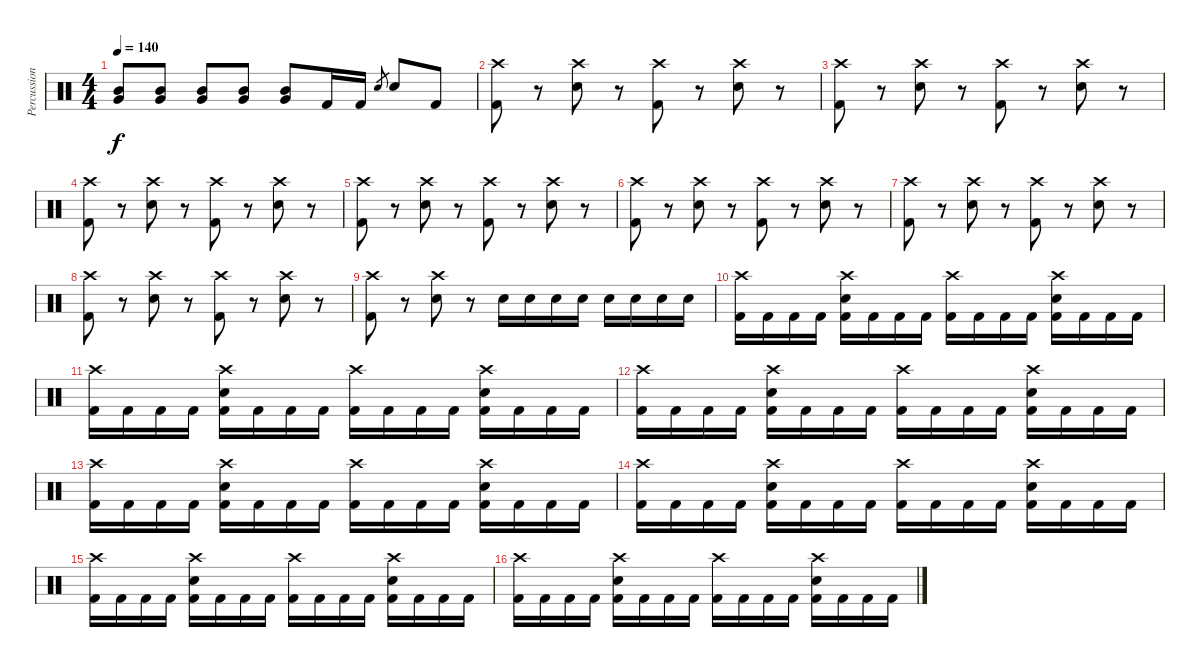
\track ("Percussion" "Percussion") {instrument percussion}
\staff {score}
\articulation defaults
\ts (4 4)
\tempo 140
\clef neutral
\ks c
("Very Low Tom (hit)" "Mid Tom (hit)").8{dy f} ("Very Low Tom (hit)" "Mid Tom (hit)").8 ("Very Low Tom (hit)" "Mid Tom (hit)").8 ("Very Low Tom (hit)" "Mid Tom (hit)").8 ("Very Low Tom (hit)" "Mid Tom (hit)").8 "Kick (hit) 2".16 "Kick (hit) 2".16 "Electric Snare (hit)".8{gr} "Electric Snare (hit)".8 "Kick (hit) 2".8 |
("Crash high (hit)" "Kick (hit) 2").8 r.8 ("Crash high (hit)" "Electric Snare (hit)").8 r.8 ("Crash high (hit)" "Kick (hit) 2").8 r.8 ("Crash high (hit)" "Electric Snare (hit)").8 r.8 |
("Crash high (hit)" "Kick (hit) 2").8 r.8 ("Crash high (hit)" "Electric Snare (hit)").8 r.8 ("Crash high (hit)" "Kick (hit) 2").8 r.8 ("Crash high (hit)" "Electric Snare (hit)").8 r.8 |
("Crash high (hit)" "Kick (hit) 2").8 r.8 ("Crash high (hit)" "Electric Snare (hit)").8 r.8 ("Crash high (hit)" "Kick (hit) 2").8 r.8 ("Crash high (hit)" "Electric Snare (hit)").8 r.8 |
("Crash high (hit)" "Kick (hit) 2").8 r.8 ("Crash high (hit)" "Electric Snare (hit)").8 r.8 ("Crash high (hit)" "Kick (hit) 2").8 r.8 ("Crash high (hit)" "Electric Snare (hit)").8 r.8 |
("Crash high (hit)" "Kick (hit) 2").8 r.8 ("Crash high (hit)" "Electric Snare (hit)").8 r.8 ("Crash high (hit)" "Kick (hit) 2").8 r.8 ("Crash high (hit)" "Electric Snare (hit)").8 r.8 |
("Crash high (hit)" "Kick (hit) 2").8 r.8 ("Crash high (hit)" "Electric Snare (hit)").8 r.8 ("Crash high (hit)" "Kick (hit) 2").8 r.8 ("Crash high (hit)" "Electric Snare (hit)").8 r.8 |
("Crash high (hit)" "Kick (hit) 2").8 r.8 ("Crash high (hit)" "Electric Snare (hit)").8 r.8 ("Crash high (hit)" "Kick (hit) 2").8 r.8 ("Crash high (hit)" "Electric Snare (hit)").8 r.8 |
("Crash high (hit)" "Kick (hit) 2").8 r.8 ("Crash high (hit)" "Electric Snare (hit)").8 r.8 "Electric Snare (hit)".16 "Electric Snare (hit)".16 "Electric Snare (hit)".16 "Electric Snare (hit)".16 "Electric Snare (hit)".16 "Electric Snare (hit)".16 "Electric Snare (hit)".16 "Electric Snare (hit)".16 |
("Crash high (hit)" "Kick (hit) 2").16 "Kick (hit) 2".16 "Kick (hit) 2".16 "Kick (hit) 2".16 ("Crash high (hit)" "Electric Snare (hit)" "Kick (hit) 2").16 "Kick (hit) 2".16 "Kick (hit) 2".16 "Kick (hit) 2".16 ("Crash high (hit)" "Kick (hit) 2").16 "Kick (hit) 2".16 "Kick (hit) 2".16 "Kick (hit) 2".16 ("Crash high (hit)" "Electric Snare (hit)" "Kick (hit) 2").16 "Kick (hit) 2".16 "Kick (hit) 2".16 "Kick (hit) 2".16 |
("Crash high (hit)" "Kick (hit) 2").16 "Kick (hit) 2".16 "Kick (hit) 2".16 "Kick (hit) 2".16 ("Crash high (hit)" "Electric Snare (hit)" "Kick (hit) 2").16 "Kick (hit) 2".16 "Kick (hit) 2".16 "Kick (hit) 2".16 ("Crash high (hit)" "Kick (hit) 2").16 "Kick (hit) 2".16 "Kick (hit) 2".16 "Kick (hit) 2".16 ("Crash high (hit)" "Electric Snare (hit)" "Kick (hit) 2").16 "Kick (hit) 2".16 "Kick (hit) 2".16 "Kick (hit) 2".16 |
("Crash high (hit)" "Kick (hit) 2").16 "Kick (hit) 2".16 "Kick (hit) 2".16 "Kick (hit) 2".16 ("Crash high (hit)" "Electric Snare (hit)" "Kick (hit) 2").16 "Kick (hit) 2".16 "Kick (hit) 2".16 "Kick (hit) 2".16 ("Crash high (hit)" "Kick (hit) 2").16 "Kick (hit) 2".16 "Kick (hit) 2".16 "Kick (hit) 2".16 ("Crash high (hit)" "Electric Snare (hit)" "Kick (hit) 2").16 "Kick (hit) 2".16 "Kick (hit) 2".16 "Kick (hit) 2".16 |
("Crash high (hit)" "Kick (hit) 2").16 "Kick (hit) 2".16 "Kick (hit) 2".16 "Kick (hit) 2".16 ("Crash high (hit)" "Electric Snare (hit)" "Kick (hit) 2").16 "Kick (hit) 2".16 "Kick (hit) 2".16 "Kick (hit) 2".16 ("Crash high (hit)" "Kick (hit) 2").16 "Kick (hit) 2".16 "Kick (hit) 2".16 "Kick (hit) 2".16 ("Crash high (hit)" "Electric Snare (hit)" "Kick (hit) 2").16 "Kick (hit) 2".16 "Kick (hit) 2".16 "Kick (hit) 2".16 |
("Crash high (hit)" "Kick (hit) 2").16 "Kick (hit) 2".16 "Kick (hit) 2".16 "Kick (hit) 2".16 ("Crash high (hit)" "Electric Snare (hit)" "Kick (hit) 2").16 "Kick (hit) 2".16 "Kick (hit) 2".16 "Kick (hit) 2".16 ("Crash high (hit)" "Kick (hit) 2").16 "Kick (hit) 2".16 "Kick (hit) 2".16 "Kick (hit) 2".16 ("Crash high (hit)" "Electric Snare (hit)" "Kick (hit) 2").16 "Kick (hit) 2".16 "Kick (hit) 2".16 "Kick (hit) 2".16 |
("Crash high (hit)" "Kick (hit) 2").16 "Kick (hit) 2".16 "Kick (hit) 2".16 "Kick (hit) 2".16 ("Crash high (hit)" "Electric Snare (hit)" "Kick (hit) 2").16 "Kick (hit) 2".16 "Kick (hit) 2".16 "Kick (hit) 2".16 ("Crash high (hit)" "Kick (hit) 2").16 "Kick (hit) 2".16 "Kick (hit) 2".16 "Kick (hit) 2".16 ("Crash high (hit)" "Electric Snare (hit)" "Kick (hit) 2").16 "Kick (hit) 2".16 "Kick (hit) 2".16 "Kick (hit) 2".16 |
("Crash high (hit)" "Kick (hit) 2").16 "Kick (hit) 2".16 "Kick (hit) 2".16 "Kick (hit) 2".16 ("Crash high (hit)" "Electric Snare (hit)" "Kick (hit) 2").16 "Kick (hit) 2".16 "Kick (hit) 2".16 "Kick (hit) 2".16 ("Crash high (hit)" "Kick (hit) 2").16 "Kick (hit) 2".16 "Kick (hit) 2".16 "Kick (hit) 2".16 ("Crash high (hit)" "Electric Snare (hit)" "Kick (hit) 2").16 "Kick (hit) 2".16 "Kick (hit) 2".16 "Kick (hit) 2".16
